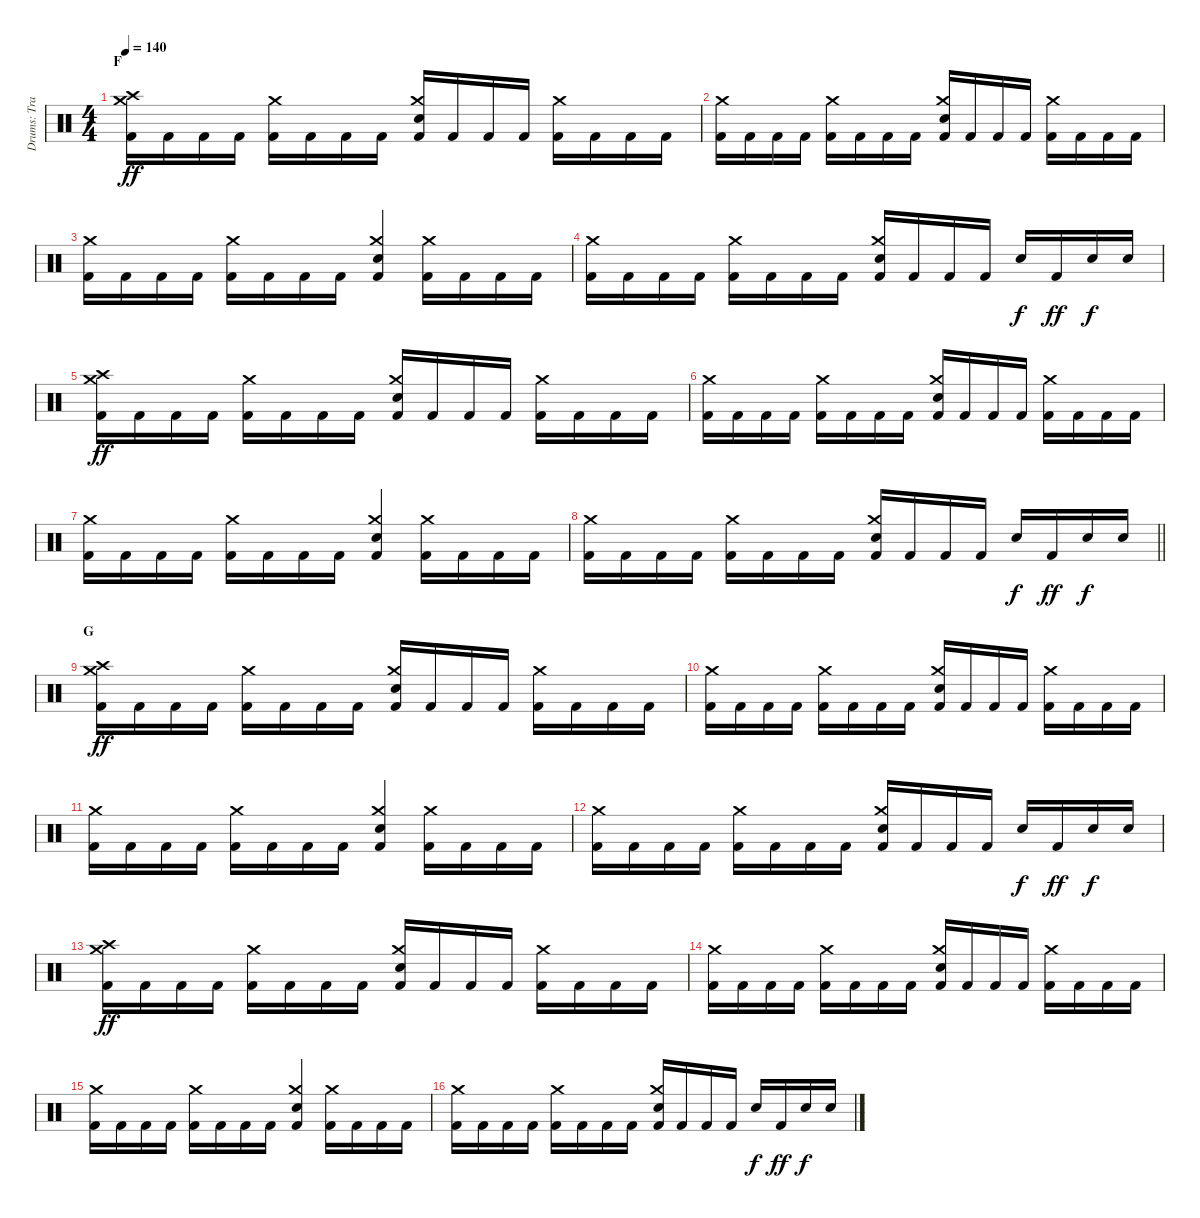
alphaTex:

\track ("Drums: Travis Clarke" "Drums: Tra") {instrument percussion}
\staff {score}
\articulation defaults
\ts (4 4)
\section ("" "F")
\tempo 140
\clef neutral
\ks c
("Kick (hit) 2" "Crash high (hit)" "Crash medium (hit)").16{dy ff} "Kick (hit) 2".16 "Kick (hit) 2".16 "Kick (hit) 2".16 ("Kick (hit) 2" "Crash medium (hit)").16 "Kick (hit) 2".16 "Kick (hit) 2".16 "Kick (hit) 2".16 ("Kick (hit) 2" "Snare (hit) 2" "Crash medium (hit)").16 "Kick (hit) 2".16 "Kick (hit) 2".16 "Kick (hit) 2".16 ("Kick (hit) 2" "Crash medium (hit)").16 "Kick (hit) 2".16 "Kick (hit) 2".16 "Kick (hit) 2".16 |
("Kick (hit) 2" "Crash medium (hit)").16 "Kick (hit) 2".16 "Kick (hit) 2".16 "Kick (hit) 2".16 ("Kick (hit) 2" "Crash medium (hit)").16 "Kick (hit) 2".16 "Kick (hit) 2".16 "Kick (hit) 2".16 ("Kick (hit) 2" "Snare (hit) 2" "Crash medium (hit)").16 "Kick (hit) 2".16 "Kick (hit) 2".16 "Kick (hit) 2".16 ("Kick (hit) 2" "Crash medium (hit)").16 "Kick (hit) 2".16 "Kick (hit) 2".16 "Kick (hit) 2".16 |
("Kick (hit) 2" "Crash medium (hit)").16 "Kick (hit) 2".16 "Kick (hit) 2".16 "Kick (hit) 2".16 ("Kick (hit) 2" "Crash medium (hit)").16 "Kick (hit) 2".16 "Kick (hit) 2".16 "Kick (hit) 2".16 ("Kick (hit) 2" "Snare (hit) 2" "Crash medium (hit)").4 ("Kick (hit) 2" "Crash medium (hit)").16 "Kick (hit) 2".16 "Kick (hit) 2".16 "Kick (hit) 2".16 |
("Kick (hit) 2" "Crash medium (hit)").16 "Kick (hit) 2".16 "Kick (hit) 2".16 "Kick (hit) 2".16 ("Kick (hit) 2" "Crash medium (hit)").16 "Kick (hit) 2".16 "Kick (hit) 2".16 "Kick (hit) 2".16 ("Kick (hit) 2" "Snare (hit) 2" "Crash medium (hit)").16 "Kick (hit) 2".16 "Kick (hit) 2".16 "Kick (hit) 2".16 "Snare (hit) 2".16{dy f} "Kick (hit) 2".16{dy ff} "Snare (hit) 2".16{dy f} "Snare (hit) 2".16 |
("Kick (hit) 2" "Crash high (hit)" "Crash medium (hit)").16{dy ff} "Kick (hit) 2".16 "Kick (hit) 2".16 "Kick (hit) 2".16 ("Kick (hit) 2" "Crash medium (hit)").16 "Kick (hit) 2".16 "Kick (hit) 2".16 "Kick (hit) 2".16 ("Kick (hit) 2" "Snare (hit) 2" "Crash medium (hit)").16 "Kick (hit) 2".16 "Kick (hit) 2".16 "Kick (hit) 2".16 ("Kick (hit) 2" "Crash medium (hit)").16 "Kick (hit) 2".16 "Kick (hit) 2".16 "Kick (hit) 2".16 |
("Kick (hit) 2" "Crash medium (hit)").16 "Kick (hit) 2".16 "Kick (hit) 2".16 "Kick (hit) 2".16 ("Kick (hit) 2" "Crash medium (hit)").16 "Kick (hit) 2".16 "Kick (hit) 2".16 "Kick (hit) 2".16 ("Kick (hit) 2" "Snare (hit) 2" "Crash medium (hit)").16 "Kick (hit) 2".16 "Kick (hit) 2".16 "Kick (hit) 2".16 ("Kick (hit) 2" "Crash medium (hit)").16 "Kick (hit) 2".16 "Kick (hit) 2".16 "Kick (hit) 2".16 |
("Kick (hit) 2" "Crash medium (hit)").16 "Kick (hit) 2".16 "Kick (hit) 2".16 "Kick (hit) 2".16 ("Kick (hit) 2" "Crash medium (hit)").16 "Kick (hit) 2".16 "Kick (hit) 2".16 "Kick (hit) 2".16 ("Kick (hit) 2" "Snare (hit) 2" "Crash medium (hit)").4 ("Kick (hit) 2" "Crash medium (hit)").16 "Kick (hit) 2".16 "Kick (hit) 2".16 "Kick (hit) 2".16 |
\barLineRight lightlight
("Kick (hit) 2" "Crash medium (hit)").16 "Kick (hit) 2".16 "Kick (hit) 2".16 "Kick (hit) 2".16 ("Kick (hit) 2" "Crash medium (hit)").16 "Kick (hit) 2".16 "Kick (hit) 2".16 "Kick (hit) 2".16 ("Kick (hit) 2" "Snare (hit) 2" "Crash medium (hit)").16 "Kick (hit) 2".16 "Kick (hit) 2".16 "Kick (hit) 2".16 "Snare (hit) 2".16{dy f} "Kick (hit) 2".16{dy ff} "Snare (hit) 2".16{dy f} "Snare (hit) 2".16 |
\section ("" "G")
("Kick (hit) 2" "Crash high (hit)" "Crash medium (hit)").16{dy ff} "Kick (hit) 2".16 "Kick (hit) 2".16 "Kick (hit) 2".16 ("Kick (hit) 2" "Crash medium (hit)").16 "Kick (hit) 2".16 "Kick (hit) 2".16 "Kick (hit) 2".16 ("Kick (hit) 2" "Snare (hit) 2" "Crash medium (hit)").16 "Kick (hit) 2".16 "Kick (hit) 2".16 "Kick (hit) 2".16 ("Kick (hit) 2" "Crash medium (hit)").16 "Kick (hit) 2".16 "Kick (hit) 2".16 "Kick (hit) 2".16 |
("Kick (hit) 2" "Crash medium (hit)").16 "Kick (hit) 2".16 "Kick (hit) 2".16 "Kick (hit) 2".16 ("Kick (hit) 2" "Crash medium (hit)").16 "Kick (hit) 2".16 "Kick (hit) 2".16 "Kick (hit) 2".16 ("Kick (hit) 2" "Snare (hit) 2" "Crash medium (hit)").16 "Kick (hit) 2".16 "Kick (hit) 2".16 "Kick (hit) 2".16 ("Kick (hit) 2" "Crash medium (hit)").16 "Kick (hit) 2".16 "Kick (hit) 2".16 "Kick (hit) 2".16 |
("Kick (hit) 2" "Crash medium (hit)").16 "Kick (hit) 2".16 "Kick (hit) 2".16 "Kick (hit) 2".16 ("Kick (hit) 2" "Crash medium (hit)").16 "Kick (hit) 2".16 "Kick (hit) 2".16 "Kick (hit) 2".16 ("Kick (hit) 2" "Snare (hit) 2" "Crash medium (hit)").4 ("Kick (hit) 2" "Crash medium (hit)").16 "Kick (hit) 2".16 "Kick (hit) 2".16 "Kick (hit) 2".16 |
("Kick (hit) 2" "Crash medium (hit)").16 "Kick (hit) 2".16 "Kick (hit) 2".16 "Kick (hit) 2".16 ("Kick (hit) 2" "Crash medium (hit)").16 "Kick (hit) 2".16 "Kick (hit) 2".16 "Kick (hit) 2".16 ("Kick (hit) 2" "Snare (hit) 2" "Crash medium (hit)").16 "Kick (hit) 2".16 "Kick (hit) 2".16 "Kick (hit) 2".16 "Snare (hit) 2".16{dy f} "Kick (hit) 2".16{dy ff} "Snare (hit) 2".16{dy f} "Snare (hit) 2".16 |
("Kick (hit) 2" "Crash high (hit)" "Crash medium (hit)").16{dy ff} "Kick (hit) 2".16 "Kick (hit) 2".16 "Kick (hit) 2".16 ("Kick (hit) 2" "Crash medium (hit)").16 "Kick (hit) 2".16 "Kick (hit) 2".16 "Kick (hit) 2".16 ("Kick (hit) 2" "Snare (hit) 2" "Crash medium (hit)").16 "Kick (hit) 2".16 "Kick (hit) 2".16 "Kick (hit) 2".16 ("Kick (hit) 2" "Crash medium (hit)").16 "Kick (hit) 2".16 "Kick (hit) 2".16 "Kick (hit) 2".16 |
("Kick (hit) 2" "Crash medium (hit)").16 "Kick (hit) 2".16 "Kick (hit) 2".16 "Kick (hit) 2".16 ("Kick (hit) 2" "Crash medium (hit)").16 "Kick (hit) 2".16 "Kick (hit) 2".16 "Kick (hit) 2".16 ("Kick (hit) 2" "Snare (hit) 2" "Crash medium (hit)").16 "Kick (hit) 2".16 "Kick (hit) 2".16 "Kick (hit) 2".16 ("Kick (hit) 2" "Crash medium (hit)").16 "Kick (hit) 2".16 "Kick (hit) 2".16 "Kick (hit) 2".16 |
("Kick (hit) 2" "Crash medium (hit)").16 "Kick (hit) 2".16 "Kick (hit) 2".16 "Kick (hit) 2".16 ("Kick (hit) 2" "Crash medium (hit)").16 "Kick (hit) 2".16 "Kick (hit) 2".16 "Kick (hit) 2".16 ("Kick (hit) 2" "Snare (hit) 2" "Crash medium (hit)").4 ("Kick (hit) 2" "Crash medium (hit)").16 "Kick (hit) 2".16 "Kick (hit) 2".16 "Kick (hit) 2".16 |
("Kick (hit) 2" "Crash medium (hit)").16 "Kick (hit) 2".16 "Kick (hit) 2".16 "Kick (hit) 2".16 ("Kick (hit) 2" "Crash medium (hit)").16 "Kick (hit) 2".16 "Kick (hit) 2".16 "Kick (hit) 2".16 ("Kick (hit) 2" "Snare (hit) 2" "Crash medium (hit)").16 "Kick (hit) 2".16 "Kick (hit) 2".16 "Kick (hit) 2".16 "Snare (hit) 2".16{dy f} "Kick (hit) 2".16{dy ff} "Snare (hit) 2".16{dy f} "Snare (hit) 2".16
